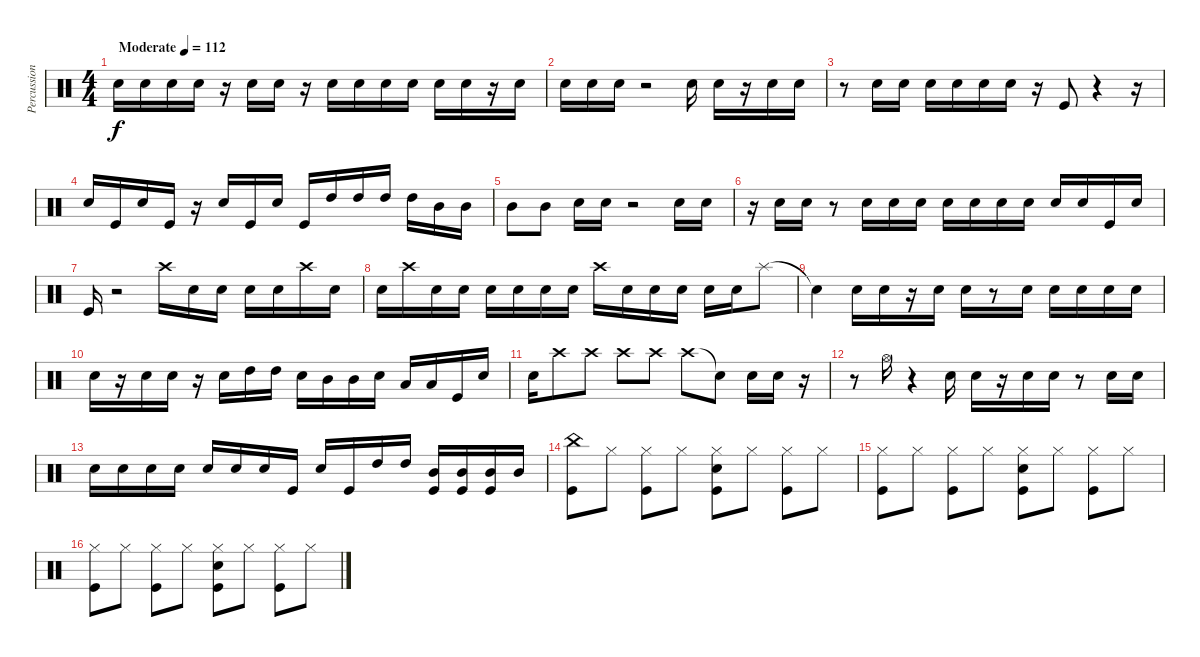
\track ("Percussions" "Percussion") {instrument percussion}
\staff {score}
\articulation defaults
\ts (4 4)
\tempo (112 "Moderate")
\clef neutral
\ks c "Snare (hit) 2".16{dy f} "Snare (hit) 2".16 "Snare (hit) 2".16 "Snare (hit) 2".16
r.16 "Snare (hit) 2".16 "Snare (hit) 2".16 r.16 "Snare (hit) 2".16 "Snare (hit) 2".16 "Snare (hit) 2".16 "Snare (hit) 2".16 "Snare (hit) 2".16 "Snare (hit) 2".16 r.16 "Snare (hit) 2".16 |
"Snare (hit) 2".16 "Snare (hit) 2".16 "Snare (hit) 2".16 r.2 "Snare (hit) 2".16 "Snare (hit) 2".16 r.16 "Snare (hit) 2".16 "Snare (hit) 2".16 |
r.8 "Snare (hit) 2".16 "Snare (hit) 2".16 "Snare (hit) 2".16 "Snare (hit) 2".16 "Snare (hit) 2".16 "Snare (hit) 2".16 r.16 "Kick (hit)".8 r.4 r.16 |
"Snare (hit) 2".16 "Kick (hit)".16 "Snare (hit) 2".16 "Kick (hit)".16 r.16 "Snare (hit) 2".16 "Kick (hit)".16 "Snare (hit) 2".16 "Kick (hit)".16 "High Tom (hit)".16 "High Tom (hit)".16 "High Tom (hit)".16 "High Tom (hit)".16 "Mid Tom (hit)".16 "Mid Tom (hit)".16 |
"Mid Tom (hit)".8 "Mid Tom (hit)".8 "Snare (hit) 2".16 "Snare (hit) 2".16 r.2 "Snare (hit) 2".16 "Snare (hit) 2".16 |
r.16 "Snare (hit) 2".16 "Snare (hit) 2".16 r.8 "Snare (hit) 2".16 "Snare (hit) 2".16 "Snare (hit) 2".16 "Snare (hit) 2".16 "Snare (hit) 2".16 "Snare (hit) 2".16 "Snare (hit) 2".16 "Snare (hit) 2".16 "Snare (hit) 2".16 "Kick (hit)".16 "Snare (hit) 2".16 |
"Kick (hit)".16 r.2 "Crash high (hit)".16 "Snare (hit) 2".16 "Snare (hit) 2".16 "Snare (hit) 2".16 "Snare (hit) 2".16 "Crash high (hit)".16 "Snare (hit) 2".16 |
"Snare (hit) 2".16 "Crash high (hit)".16 "Snare (hit) 2".16 "Snare (hit) 2".16 "Snare (hit) 2".16 "Snare (hit) 2".16 "Snare (hit) 2".16 "Snare (hit) 2".16 "Crash high (hit)".16 "Snare (hit) 2".16 "Snare (hit) 2".16 "Snare (hit) 2".16 "Snare (hit) 2".16 "Snare (hit) 2".16 "Splash (hit)".8 |
"Snare (hit)"{t}.4 "Snare (hit) 2".16 "Snare (hit) 2".16 r.16 "Snare (hit) 2".16 "Snare (hit) 2".16 r.8 "Snare (hit) 2".16 "Snare (hit) 2".16 "Snare (hit) 2".16 "Snare (hit) 2".16 "Snare (hit) 2".16 |
"Snare (hit) 2".16 r.16 "Snare (hit) 2".16 "Snare (hit) 2".16 r.16 "Snare (hit) 2".16 "High Tom (hit)".16 "High Tom (hit)".16 "Snare (hit) 2".16 "Mid Tom (hit)".16 "Mid Tom (hit)".16 "Snare (hit) 2".16 "Low Floor Tom (hit)".16 "Low Floor Tom (hit)".16 "Kick (hit)".16 "Snare (hit) 2".16 |
"Snare (hit) 2".16 "Crash high (hit)".8 "Crash high (hit)".8 "Crash high (hit)".8 "Crash high (hit)".8 "Crash high (hit)".8 "Snare (hit) 2"{t}.8 "Snare (hit) 2".16 "Snare (hit) 2".16 r.16 |
r.8 "Hi-Hat (open)".16 r.4 "Snare (hit) 2".16 "Snare (hit) 2".16 r.16 "Snare (hit) 2".16 "Snare (hit) 2".16 r.8 "Snare (hit) 2".16 "Snare (hit) 2".16 |
"Snare (hit) 2".16 "Snare (hit) 2".16 "Snare (hit) 2".16 "Snare (hit) 2".16 "Snare (hit) 2".16 "Snare (hit) 2".16 "Snare (hit) 2".16 "Kick (hit)".16 "Snare (hit) 2".16 "Kick (hit)".16 "High Tom (hit)".16 "High Tom (hit)".16 ("Mid Tom (hit)" "Kick (hit)").16 ("Mid Tom (hit)" "Kick (hit)").16 ("Mid Tom (hit)" "Kick (hit)").16 "Mid Tom (hit)".16 |
("China (hit)" "Kick (hit)").8 "Hi-Hat (closed)".8 ("Hi-Hat (closed)" "Kick (hit)").8 "Hi-Hat (closed)".8 ("Hi-Hat (closed)" "Snare (hit) 2" "Kick (hit)").8 "Hi-Hat (closed)".8 ("Hi-Hat (closed)" "Kick (hit)").8 "Hi-Hat (closed)".8 |
("Hi-Hat (closed)" "Kick (hit)").8 "Hi-Hat (closed)".8 ("Hi-Hat (closed)" "Kick (hit)").8 "Hi-Hat (closed)".8 ("Hi-Hat (closed)" "Snare (hit) 2" "Kick (hit)").8 "Hi-Hat (closed)".8 ("Hi-Hat (closed)" "Kick (hit)").8 "Hi-Hat (closed)".8 |
("Hi-Hat (closed)" "Kick (hit)").8 "Hi-Hat (closed)".8 ("Hi-Hat (closed)" "Kick (hit)").8 "Hi-Hat (closed)".8 ("Hi-Hat (closed)" "Snare (hit) 2" "Kick (hit)").8 "Hi-Hat (closed)".8 ("Hi-Hat (closed)" "Kick (hit)").8 "Hi-Hat (closed)".8
